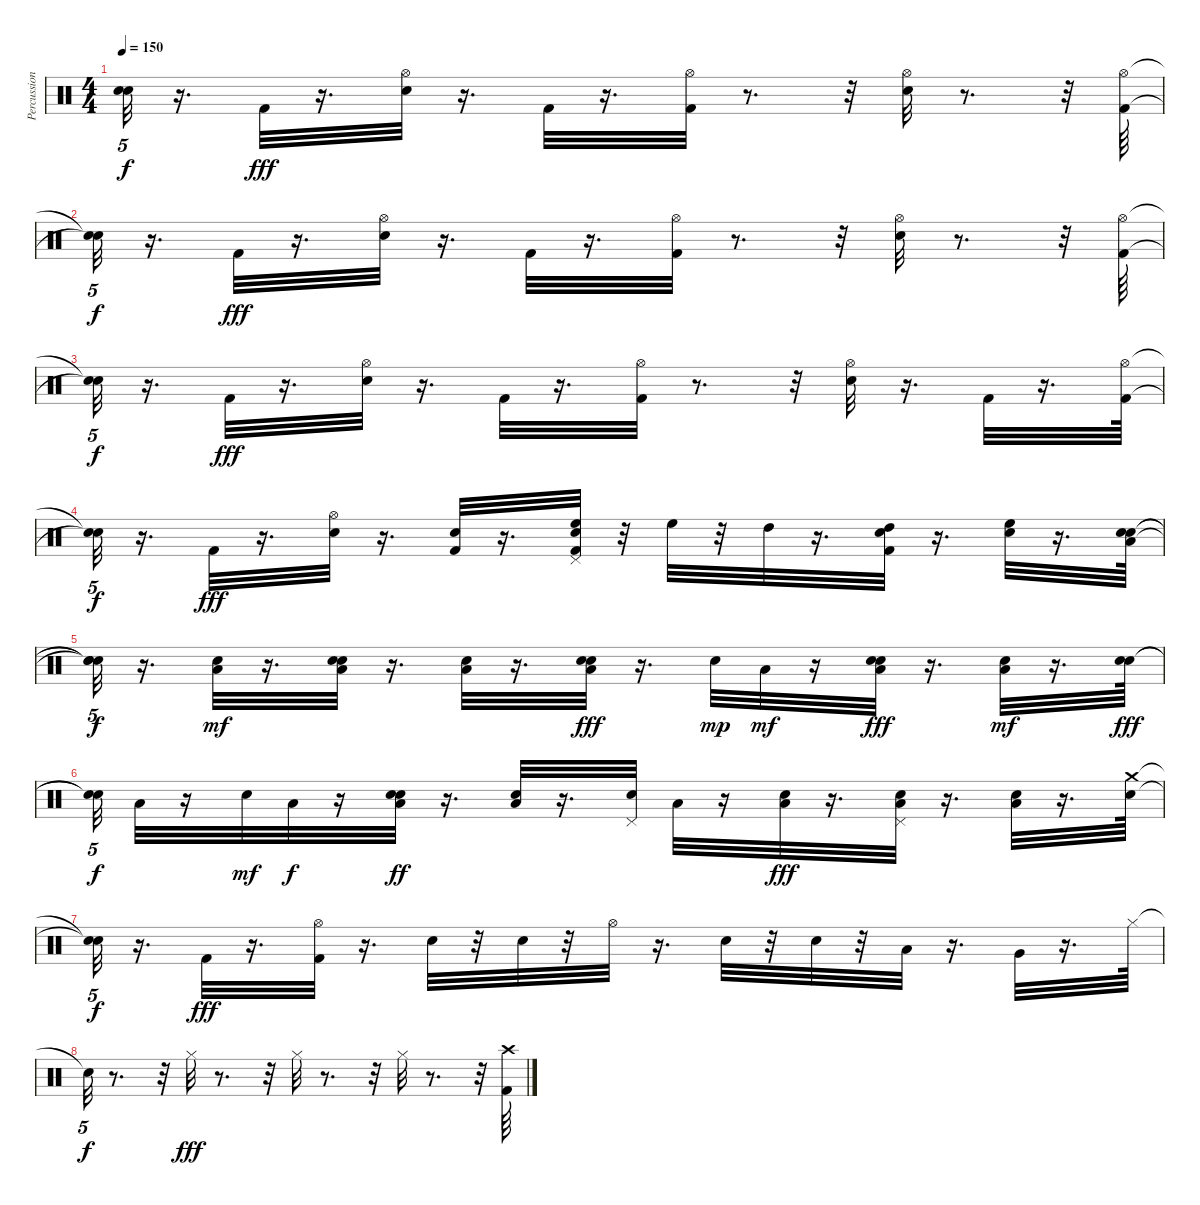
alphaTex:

\track ("Percussion" "Percussion") {instrument percussion}
\staff {score}
\articulation defaults
\ts (4 4)
\tempo 150
\clef neutral
\ks c
("Snare (hit)"{t} "Snare (hit)"{t}).32{tu (5 4) dy f} r.16{d} "Kick (hit) 2".32{dy fff} r.16{d} ("Snare (hit) 2" "Hi-Hat (open)").32 r.16{d} "Kick (hit) 2".32 r.16{d} ("Hi-Hat (open)" "Kick (hit) 2").32 r.8{d} r.32 ("Snare (hit) 2" "Hi-Hat (open)").32 r.8{d} r.32 ("Hi-Hat (open)" "Kick (hit) 2").64 |
("Snare (hit)"{t} "Snare (hit)"{t}).32{tu (5 4) dy f} r.16{d} "Kick (hit) 2".32{dy fff} r.16{d} ("Snare (hit) 2" "Hi-Hat (open)").32 r.16{d} "Kick (hit) 2".32 r.16{d} ("Hi-Hat (open)" "Kick (hit) 2").32 r.8{d} r.32 ("Snare (hit) 2" "Hi-Hat (open)").32 r.8{d} r.32 ("Hi-Hat (open)" "Kick (hit) 2").64 |
("Snare (hit)"{t} "Snare (hit)"{t}).32{tu (5 4) dy f} r.16{d} "Kick (hit) 2".32{dy fff} r.16{d} ("Snare (hit) 2" "Hi-Hat (open)").32 r.16{d} "Kick (hit) 2".32 r.16{d} ("Hi-Hat (open)" "Kick (hit) 2").32 r.8{d} r.32 ("Snare (hit) 2" "Hi-Hat (open)").32 r.16{d} "Kick (hit) 2".32 r.16{d} ("Hi-Hat (open)" "Kick (hit) 2").64 |
("Snare (hit)"{t} "Snare (hit)"{t}).32{tu (5 4) dy f} r.16{d} "Kick (hit) 2".32{dy fff} r.16{d} ("Snare (hit) 2" "Hi-Hat (open)").32 r.16{d} ("Snare (hit) 2" "Kick (hit) 2").32 r.16{d} ("High Floor Tom (hit)" "Snare (hit) 2" "Pedal Hi-Hat (hit)" "Kick (hit) 2").32 r.32 "High Floor Tom (hit)".32 r.32 "High Tom (hit)".32 r.16{d} ("High Tom (hit)" "Snare (hit) 2" "Kick (hit) 2").32 r.16{d} ("High Floor Tom (hit)" "Snare (hit) 2").32 r.16{d} ("Low Floor Tom (hit)" "Snare (hit) 2" "Snare (hit)").64 |
("Snare (hit)"{t} "Snare (hit)"{t} "Snare (hit)"{t}).32{tu (5 4) dy f} r.16{d} ("Low Floor Tom (hit)" "Snare (hit) 2").32{dy mf} r.16{d} ("Snare (hit) 2" "Snare (hit)" "Low Floor Tom (hit)").32 r.16{d} ("Snare (hit) 2" "Low Floor Tom (hit)").32 r.16{d} ("Low Floor Tom (hit)" "Snare (hit) 2" "Snare (hit)").32{dy fff} r.16{d} "Snare (hit) 2".32{dy mp} "Low Floor Tom (hit)".32{dy mf} r.16 ("Snare (hit) 2" "Snare (hit)" "Low Floor Tom (hit)").32{dy fff} r.16{d} ("Snare (hit) 2" "Low Floor Tom (hit)").32{dy mf} r.16{d} ("Snare (hit) 2" "Snare (hit)").64{dy fff} |
("Snare (hit)"{t} "Snare (hit)"{t}).32{tu (5 4) dy f} "Low Floor Tom (hit)".32 r.16 "Snare (hit) 2".32{dy mf} "Low Floor Tom (hit)".32{dy f} r.16 ("Snare (hit) 2" "Snare (hit)" "Low Floor Tom (hit)").32{dy ff} r.16{d} ("Low Floor Tom (hit)" "Snare (hit) 2").32 r.16{d} ("Snare (hit) 2" "Pedal Hi-Hat (hit)").32 "Low Floor Tom (hit)".32 r.16 ("Snare (hit) 2" "Low Floor Tom (hit)").32{dy fff} r.16{d} ("Snare (hit) 2" "Pedal Hi-Hat (hit)" "Low Floor Tom (hit)").32 r.16{d} ("Snare (hit) 2" "Low Floor Tom (hit)").32 r.16{d} ("Electric Snare (hit)" "Crash medium (hit)").64 |
("Snare (hit)"{t} "Snare (hit)"{t}).32{tu (5 4) dy f} r.16{d} "Kick (hit) 2".32{dy fff} r.16{d} ("Kick (hit) 2" "Hi-Hat (open)").32 r.16{d} "Electric Snare (hit)".32 r.32 "Snare (hit) 2".32 r.32 "Hi-Hat (open)".32 r.16{d} "Electric Snare (hit)".32 r.32 "Snare (hit) 2".32 r.32 "Low Tom (hit)".32 r.16{d} "Very Low Tom (hit)".32 r.16{d} "Hi-Hat (closed)".64 |
"Snare (hit)"{t}.32{tu (5 4) dy f} r.8{d} r.32 "Hi-Hat (closed)".32{dy fff} r.8{d} r.32 "Hi-Hat (closed)".32 r.8{d} r.32 "Hi-Hat (closed)".32 r.8{d} r.32 ("Crash high (hit)" "Kick (hit) 2").64
